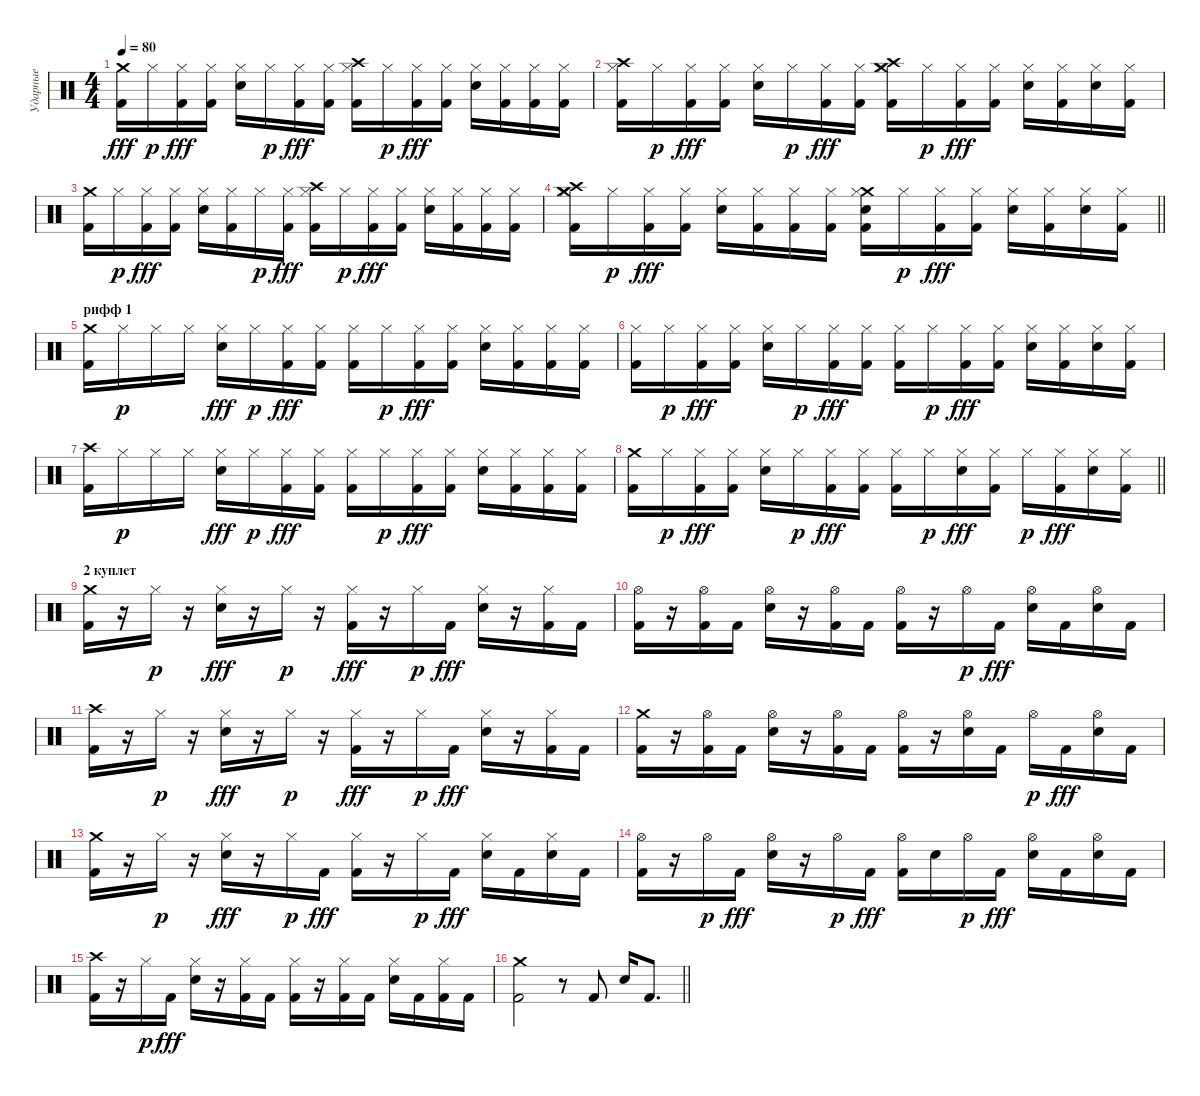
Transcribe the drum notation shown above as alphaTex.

\track ("Ударные" "Ударные") {instrument percussion}
\staff {score}
\articulation defaults
\ts (4 4)
\tempo 80
\clef neutral
\ks c
("Crash medium (hit)" "Kick (hit) 2").16{dy fff} "Hi-Hat (closed)".16{dy p} ("Hi-Hat (closed)" "Kick (hit) 2").16{dy fff} ("Hi-Hat (closed)" "Kick (hit) 2").16 ("Hi-Hat (closed)" "Snare (hit) 2").16 "Hi-Hat (closed)".16{dy p} ("Hi-Hat (closed)" "Kick (hit) 2").16{dy fff} ("Hi-Hat (closed)" "Kick (hit) 2").16 ("Crash high (hit)" "Hi-Hat (closed)" "Kick (hit) 2").16 "Hi-Hat (closed)".16{dy p} ("Hi-Hat (closed)" "Kick (hit) 2").16{dy fff} ("Hi-Hat (closed)" "Kick (hit) 2").16 ("Hi-Hat (closed)" "Snare (hit) 2").16 ("Hi-Hat (closed)" "Kick (hit) 2").16 ("Hi-Hat (closed)" "Kick (hit) 2").16 ("Hi-Hat (closed)" "Kick (hit) 2").16 |
("Crash high (hit)" "Hi-Hat (closed)" "Kick (hit) 2").16 "Hi-Hat (closed)".16{dy p} ("Hi-Hat (closed)" "Kick (hit) 2").16{dy fff} ("Hi-Hat (closed)" "Kick (hit) 2").16 ("Hi-Hat (closed)" "Snare (hit) 2").16 "Hi-Hat (closed)".16{dy p} ("Hi-Hat (closed)" "Kick (hit) 2").16{dy fff} ("Hi-Hat (closed)" "Kick (hit) 2").16 ("Crash medium (hit)" "Crash high (hit)" "Hi-Hat (closed)" "Kick (hit) 2").16 "Hi-Hat (closed)".16{dy p} ("Hi-Hat (closed)" "Kick (hit) 2").16{dy fff} ("Hi-Hat (closed)" "Kick (hit) 2").16 ("Hi-Hat (closed)" "Snare (hit) 2").16 ("Hi-Hat (closed)" "Kick (hit) 2").16 ("Hi-Hat (closed)" "Snare (hit) 2").16 ("Hi-Hat (closed)" "Kick (hit) 2").16 |
("Crash medium (hit)" "Kick (hit) 2").16 "Hi-Hat (closed)".16{dy p} ("Hi-Hat (closed)" "Kick (hit) 2").16{dy fff} ("Hi-Hat (closed)" "Kick (hit) 2").16 ("Hi-Hat (closed)" "Snare (hit) 2").16 ("Hi-Hat (closed)" "Kick (hit) 2").16 "Hi-Hat (closed)".16{dy p} ("Hi-Hat (closed)" "Kick (hit) 2").16{dy fff} ("Crash high (hit)" "Hi-Hat (closed)" "Kick (hit) 2").16 "Hi-Hat (closed)".16{dy p} ("Hi-Hat (closed)" "Kick (hit) 2").16{dy fff} ("Hi-Hat (closed)" "Kick (hit) 2").16 ("Hi-Hat (closed)" "Snare (hit) 2").16 ("Hi-Hat (closed)" "Kick (hit) 2").16 ("Hi-Hat (closed)" "Kick (hit) 2").16 ("Hi-Hat (closed)" "Kick (hit) 2").16 |
\barLineRight lightlight
("Crash high (hit)" "Crash medium (hit)" "Hi-Hat (closed)" "Kick (hit) 2").16 "Hi-Hat (closed)".16{dy p} ("Hi-Hat (closed)" "Kick (hit) 2").16{dy fff} ("Hi-Hat (closed)" "Kick (hit) 2").16 ("Hi-Hat (closed)" "Snare (hit) 2").16 ("Hi-Hat (closed)" "Kick (hit) 2").16 ("Hi-Hat (closed)" "Kick (hit) 2").16 ("Hi-Hat (closed)" "Kick (hit) 2").16 ("Crash medium (hit)" "Hi-Hat (closed)" "Snare (hit) 2" "Kick (hit) 2").16 "Hi-Hat (closed)".16{dy p} ("Hi-Hat (closed)" "Kick (hit) 2").16{dy fff} ("Hi-Hat (closed)" "Kick (hit) 2").16 ("Hi-Hat (closed)" "Snare (hit) 2").16 ("Hi-Hat (closed)" "Kick (hit) 2").16 ("Hi-Hat (closed)" "Snare (hit) 2").16 ("Hi-Hat (closed)" "Kick (hit) 2").16 |
\section ("" "рифф 1")
("Crash medium (hit)" "Kick (hit) 2").16 "Hi-Hat (closed)".16{dy p} "Hi-Hat (closed)".16 "Hi-Hat (closed)".16 ("Hi-Hat (closed)" "Snare (hit) 2").16{dy fff} "Hi-Hat (closed)".16{dy p} ("Hi-Hat (closed)" "Kick (hit) 2").16{dy fff} ("Hi-Hat (closed)" "Kick (hit) 2").16 ("Hi-Hat (closed)" "Kick (hit) 2").16 "Hi-Hat (closed)".16{dy p} ("Hi-Hat (closed)" "Kick (hit) 2").16{dy fff} ("Hi-Hat (closed)" "Kick (hit) 2").16 ("Hi-Hat (closed)" "Snare (hit) 2").16 ("Hi-Hat (closed)" "Kick (hit) 2").16 ("Hi-Hat (closed)" "Kick (hit) 2").16 ("Hi-Hat (closed)" "Kick (hit) 2").16 |
("Hi-Hat (closed)" "Kick (hit) 2").16 "Hi-Hat (closed)".16{dy p} ("Hi-Hat (closed)" "Kick (hit) 2").16{dy fff} ("Hi-Hat (closed)" "Kick (hit) 2").16 ("Hi-Hat (closed)" "Snare (hit) 2").16 "Hi-Hat (closed)".16{dy p} ("Hi-Hat (closed)" "Kick (hit) 2").16{dy fff} ("Hi-Hat (closed)" "Kick (hit) 2").16 ("Hi-Hat (closed)" "Kick (hit) 2").16 "Hi-Hat (closed)".16{dy p} ("Hi-Hat (closed)" "Kick (hit) 2").16{dy fff} ("Hi-Hat (closed)" "Kick (hit) 2").16 ("Hi-Hat (closed)" "Snare (hit) 2").16 ("Hi-Hat (closed)" "Kick (hit) 2").16 ("Hi-Hat (closed)" "Snare (hit) 2").16 ("Hi-Hat (closed)" "Kick (hit) 2").16 |
("Crash high (hit)" "Kick (hit) 2").16 "Hi-Hat (closed)".16{dy p} "Hi-Hat (closed)".16 "Hi-Hat (closed)".16 ("Hi-Hat (closed)" "Snare (hit) 2").16{dy fff} "Hi-Hat (closed)".16{dy p} ("Hi-Hat (closed)" "Kick (hit) 2").16{dy fff} ("Hi-Hat (closed)" "Kick (hit) 2").16 ("Hi-Hat (closed)" "Kick (hit) 2").16 "Hi-Hat (closed)".16{dy p} ("Hi-Hat (closed)" "Kick (hit) 2").16{dy fff} ("Hi-Hat (closed)" "Kick (hit) 2").16 ("Hi-Hat (closed)" "Snare (hit) 2").16 ("Hi-Hat (closed)" "Kick (hit) 2").16 ("Hi-Hat (closed)" "Kick (hit) 2").16 ("Hi-Hat (closed)" "Kick (hit) 2").16 |
\barLineRight lightlight
("Crash medium (hit)" "Kick (hit) 2").16 "Hi-Hat (closed)".16{dy p} ("Hi-Hat (closed)" "Kick (hit) 2").16{dy fff} ("Hi-Hat (closed)" "Kick (hit) 2").16 ("Hi-Hat (closed)" "Snare (hit) 2").16 "Hi-Hat (closed)".16{dy p} ("Hi-Hat (closed)" "Kick (hit) 2").16{dy fff} ("Hi-Hat (closed)" "Kick (hit) 2").16 ("Hi-Hat (closed)" "Kick (hit) 2").16 "Hi-Hat (closed)".16{dy p} ("Hi-Hat (closed)" "Snare (hit) 2").16{dy fff} ("Hi-Hat (closed)" "Kick (hit) 2").16 "Hi-Hat (closed)".16{dy p} ("Hi-Hat (closed)" "Kick (hit) 2").16{dy fff} ("Hi-Hat (closed)" "Snare (hit) 2").16 ("Hi-Hat (closed)" "Kick (hit) 2").16 |
\section ("" "2 куплет")
("Crash medium (hit)" "Kick (hit) 2").16 r.16 "Hi-Hat (closed)".16{dy p} r.16 ("Hi-Hat (closed)" "Snare (hit) 2").16{dy fff} r.16 "Hi-Hat (closed)".16{dy p} r.16 ("Hi-Hat (closed)" "Kick (hit) 2").16{dy fff} r.16 "Hi-Hat (closed)".16{dy p} "Kick (hit) 2".16{dy fff} ("Hi-Hat (closed)" "Snare (hit) 2").16 r.16 ("Hi-Hat (closed)" "Kick (hit) 2").16 "Kick (hit) 2".16 |
("Hi-Hat (open)" "Kick (hit) 2").16 r.16 ("Hi-Hat (open)" "Kick (hit) 2").16 "Kick (hit) 2".16 ("Hi-Hat (open)" "Snare (hit) 2").16 r.16 ("Hi-Hat (open)" "Kick (hit) 2").16 "Kick (hit) 2".16 ("Hi-Hat (open)" "Kick (hit) 2").16 r.16 "Hi-Hat (open)".16{dy p} "Kick (hit) 2".16{dy fff} ("Hi-Hat (open)" "Snare (hit) 2").16 "Kick (hit) 2".16 ("Hi-Hat (open)" "Snare (hit) 2").16 "Kick (hit) 2".16 |
("Crash high (hit)" "Kick (hit) 2").16 r.16 "Hi-Hat (closed)".16{dy p} r.16 ("Hi-Hat (closed)" "Snare (hit) 2").16{dy fff} r.16 "Hi-Hat (closed)".16{dy p} r.16 ("Hi-Hat (closed)" "Kick (hit) 2").16{dy fff} r.16 "Hi-Hat (closed)".16{dy p} "Kick (hit) 2".16{dy fff} ("Hi-Hat (closed)" "Snare (hit) 2").16 r.16 ("Hi-Hat (closed)" "Kick (hit) 2").16 "Kick (hit) 2".16 |
("Crash medium (hit)" "Kick (hit) 2").16 r.16 ("Hi-Hat (open)" "Kick (hit) 2").16 "Kick (hit) 2".16 ("Hi-Hat (open)" "Snare (hit) 2").16 r.16 ("Hi-Hat (open)" "Kick (hit) 2").16 "Kick (hit) 2".16 ("Hi-Hat (open)" "Kick (hit) 2").16 r.16 ("Hi-Hat (open)" "Snare (hit) 2").16 "Kick (hit) 2".16 "Hi-Hat (open)".16{dy p} "Kick (hit) 2".16{dy fff} ("Hi-Hat (open)" "Snare (hit) 2").16 "Kick (hit) 2".16 |
("Crash medium (hit)" "Kick (hit) 2").16 r.16 "Hi-Hat (closed)".16{dy p} r.16 ("Hi-Hat (closed)" "Snare (hit) 2").16{dy fff} r.16 "Hi-Hat (closed)".16{dy p} "Kick (hit) 2".16{dy fff} ("Hi-Hat (closed)" "Kick (hit) 2").16 r.16 "Hi-Hat (closed)".16{dy p} "Kick (hit) 2".16{dy fff} ("Hi-Hat (closed)" "Snare (hit) 2").16 "Kick (hit) 2".16 ("Hi-Hat (closed)" "Snare (hit) 2").16 "Kick (hit) 2".16 |
("Hi-Hat (open)" "Kick (hit) 2").16 r.16 "Hi-Hat (open)".16{dy p} "Kick (hit) 2".16{dy fff} ("Hi-Hat (open)" "Snare (hit) 2").16 r.16 "Hi-Hat (open)".16{dy p} "Kick (hit) 2".16{dy fff} ("Hi-Hat (open)" "Kick (hit) 2").16 "Snare (hit) 2".16 "Hi-Hat (open)".16{dy p} "Kick (hit) 2".16{dy fff} ("Hi-Hat (open)" "Snare (hit) 2").16 "Kick (hit) 2".16 ("Hi-Hat (open)" "Snare (hit) 2").16 "Kick (hit) 2".16 |
("Crash high (hit)" "Kick (hit) 2").16 r.16 "Hi-Hat (closed)".16{dy p} "Kick (hit) 2".16{dy fff} ("Hi-Hat (closed)" "Snare (hit) 2").16 r.16 ("Hi-Hat (closed)" "Kick (hit) 2").16 "Kick (hit) 2".16 ("Hi-Hat (closed)" "Kick (hit) 2").16 r.16 ("Hi-Hat (closed)" "Kick (hit) 2").16 "Kick (hit) 2".16 ("Hi-Hat (closed)" "Snare (hit) 2").16 "Kick (hit) 2".16 ("Hi-Hat (closed)" "Kick (hit) 2").16 "Kick (hit) 2".16 |
\barLineRight lightlight
("Crash medium (hit)" "Kick (hit) 2").2 r.8 "Kick (hit) 2".8 "Snare (hit) 2".16 "Kick (hit) 2".8{d}
